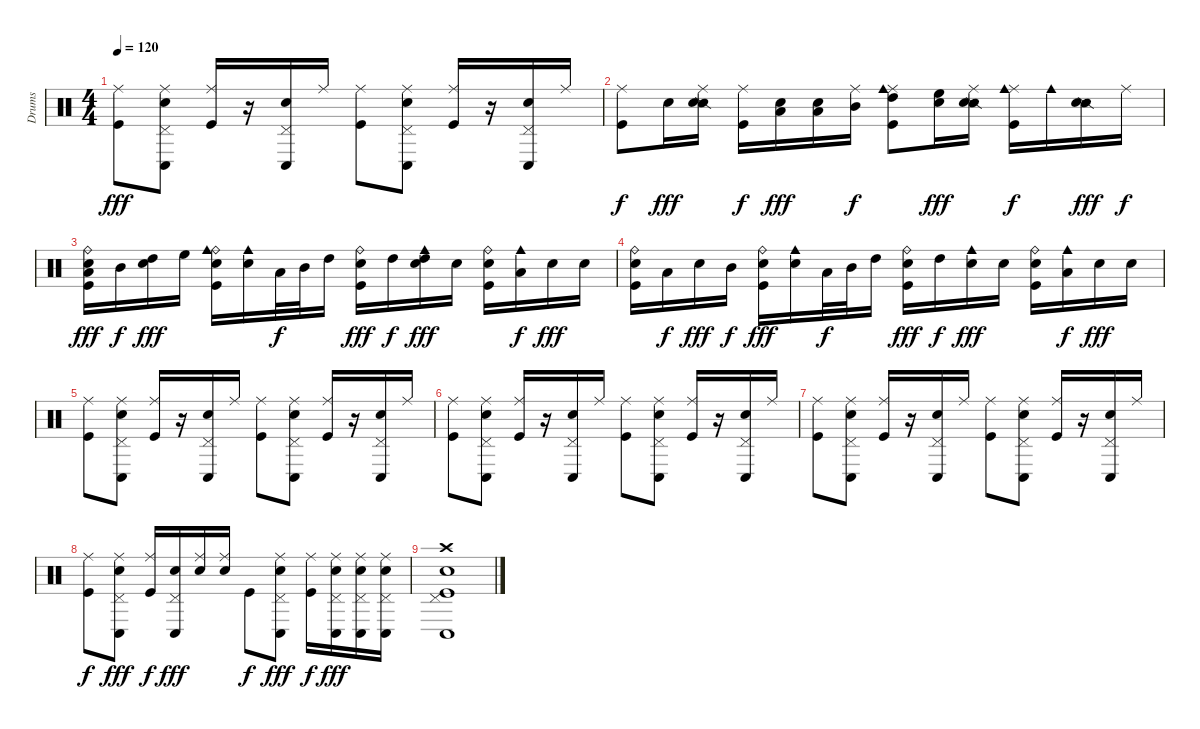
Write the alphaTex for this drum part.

\track ("Drums" "Drums") {instrument percussion}
\staff {score}
\articulation defaults
\ts (4 4)
\tempo 120
\clef neutral
\ks c
("Ride (middle)" "Kick (hit)").8{dy fff} ("Ride (middle)" "Pedal Hi-Hat (hit)" "Conga low (hit)" "Electric Snare (hit)").8 ("Ride (middle)" "Kick (hit)").16 r.16 ("Pedal Hi-Hat (hit)" "Conga low (hit)" "Electric Snare (hit)").16 "Ride (middle)".16 ("Ride (middle)" "Kick (hit)").8 ("Ride (middle)" "Pedal Hi-Hat (hit)" "Conga low (hit)" "Electric Snare (hit)").8 ("Ride (middle)" "Kick (hit)").16 r.16 ("Pedal Hi-Hat (hit)" "Conga low (hit)" "Electric Snare (hit)").16 "Ride (middle)".16 |
("Ride (middle)" "Kick (hit)").8{dy f} "Electric Snare (hit)".16{dy fff} ("Ride (middle)" "Snare (side stick) 2" "Electric Snare (hit)").16 ("Ride (middle)" "Kick (hit)").16{dy f} ("Low Floor Tom (hit)" "Electric Snare (hit)").16{dy fff} ("Low Tom (hit)" "Electric Snare (hit)").16 ("Ride (middle)" "Mid Tom (hit)").16{dy f} ("Ride (middle)" "Cowbell medium (hit)" "High Tom (hit)" "Kick (hit)").8 ("High Floor Tom (hit)" "Electric Snare (hit)").16{dy fff} ("Ride (middle)" "Snare (side stick) 2" "Electric Snare (hit)").16 ("Ride (middle)" "Cowbell medium (hit)" "Kick (hit)").16{dy f} "Cowbell medium (hit)".16 ("Snare (side stick) 2" "Electric Snare (hit)").16{dy fff} "Ride (middle)".16{dy f} |
("Ride (bell)" "Low Tom (hit)" "Electric Snare (hit)" "Kick (hit)").16{dy fff} "Mid Tom (hit)".16{dy f} ("High Tom (hit)" "Electric Snare (hit)").16{dy fff} "High Floor Tom (hit)".16 ("Ride (bell)" "Cowbell medium (hit)" "Electric Snare (hit)" "Kick (hit)").16 ("Cowbell medium (hit)" "Electric Snare (hit)").16 "Low Tom (hit)".32{dy f} "Mid Tom (hit)".32 "High Tom (hit)".16 ("Ride (bell)" "Electric Snare (hit)" "Kick (hit)").16{dy fff} "High Tom (hit)".16{dy f} ("Cowbell medium (hit)" "High Tom (hit)" "Electric Snare (hit)").16{dy fff} "Electric Snare (hit)".16 ("Ride (bell)" "Electric Snare (hit)" "Kick (hit)").16 ("Cowbell medium (hit)" "Low Tom (hit)").16{dy f} "Electric Snare (hit)".16{dy fff} "Electric Snare (hit)".16 |
("Ride (bell)" "Electric Snare (hit)" "Kick (hit)").16 "Low Tom (hit)".16{dy f} "Electric Snare (hit)".16{dy fff} "Mid Tom (hit)".16{dy f} ("Ride (bell)" "Electric Snare (hit)" "Kick (hit)").16{dy fff} ("Cowbell medium (hit)" "Electric Snare (hit)").16 "Low Tom (hit)".32{dy f} "Mid Tom (hit)".32 "High Tom (hit)".16 ("Ride (bell)" "Electric Snare (hit)" "Kick (hit)").16{dy fff} "High Tom (hit)".16{dy f} ("Cowbell medium (hit)" "Electric Snare (hit)").16{dy fff} "Electric Snare (hit)".16 ("Ride (bell)" "Electric Snare (hit)" "Kick (hit)").16 ("Cowbell medium (hit)" "Low Tom (hit)").16{dy f} "Electric Snare (hit)".16{dy fff} "Electric Snare (hit)".16 |
("Ride (middle)" "Kick (hit)").8 ("Ride (middle)" "Pedal Hi-Hat (hit)" "Conga low (hit)" "Electric Snare (hit)").8 ("Ride (middle)" "Kick (hit)").16 r.16 ("Pedal Hi-Hat (hit)" "Conga low (hit)" "Electric Snare (hit)").16 "Ride (middle)".16 ("Ride (middle)" "Kick (hit)").8 ("Ride (middle)" "Pedal Hi-Hat (hit)" "Conga low (hit)" "Electric Snare (hit)").8 ("Ride (middle)" "Kick (hit)").16 r.16 ("Pedal Hi-Hat (hit)" "Conga low (hit)" "Electric Snare (hit)").16 "Ride (middle)".16 |
("Ride (middle)" "Kick (hit)").8 ("Ride (middle)" "Pedal Hi-Hat (hit)" "Conga low (hit)" "Electric Snare (hit)").8 ("Ride (middle)" "Kick (hit)").16 r.16 ("Pedal Hi-Hat (hit)" "Conga low (hit)" "Electric Snare (hit)").16 "Ride (middle)".16 ("Ride (middle)" "Kick (hit)").8 ("Ride (middle)" "Pedal Hi-Hat (hit)" "Conga low (hit)" "Electric Snare (hit)").8 ("Ride (middle)" "Kick (hit)").16 r.16 ("Pedal Hi-Hat (hit)" "Conga low (hit)" "Electric Snare (hit)").16 "Ride (middle)".16 |
("Ride (middle)" "Kick (hit)").8 ("Ride (middle)" "Pedal Hi-Hat (hit)" "Conga low (hit)" "Electric Snare (hit)").8 ("Ride (middle)" "Kick (hit)").16 r.16 ("Pedal Hi-Hat (hit)" "Conga low (hit)" "Electric Snare (hit)").16 "Ride (middle)".16 ("Ride (middle)" "Kick (hit)").8 ("Ride (middle)" "Pedal Hi-Hat (hit)" "Conga low (hit)" "Electric Snare (hit)").8 ("Ride (middle)" "Kick (hit)").16 r.16 ("Pedal Hi-Hat (hit)" "Conga low (hit)" "Electric Snare (hit)").16 "Ride (middle)".16 |
("Ride (middle)" "Kick (hit)").8{dy f} ("Ride (middle)" "Pedal Hi-Hat (hit)" "Conga low (hit)" "Electric Snare (hit)").8{dy fff} ("Ride (middle)" "Kick (hit)").16{dy f} ("Pedal Hi-Hat (hit)" "Conga low (hit)" "Electric Snare (hit)").16{dy fff} ("Ride (middle)" "Electric Snare (hit)").16 ("Ride (middle)" "Electric Snare (hit)").16 "Kick (hit)".8{dy f} ("Ride (middle)" "Pedal Hi-Hat (hit)" "Conga low (hit)" "Electric Snare (hit)").8{dy fff} ("Ride (middle)" "Kick (hit)").16{dy f} ("Ride (middle)" "Pedal Hi-Hat (hit)" "Conga low (hit)" "Electric Snare (hit)").16{dy fff} ("Ride (middle)" "Pedal Hi-Hat (hit)" "Conga low (hit)" "Electric Snare (hit)").16 ("Ride (middle)" "Pedal Hi-Hat (hit)" "Conga low (hit)" "Electric Snare (hit)").16 |
("Crash high (hit)" "Pedal Hi-Hat (hit)" "Conga low (hit)" "Electric Snare (hit)" "Kick (hit)").1
